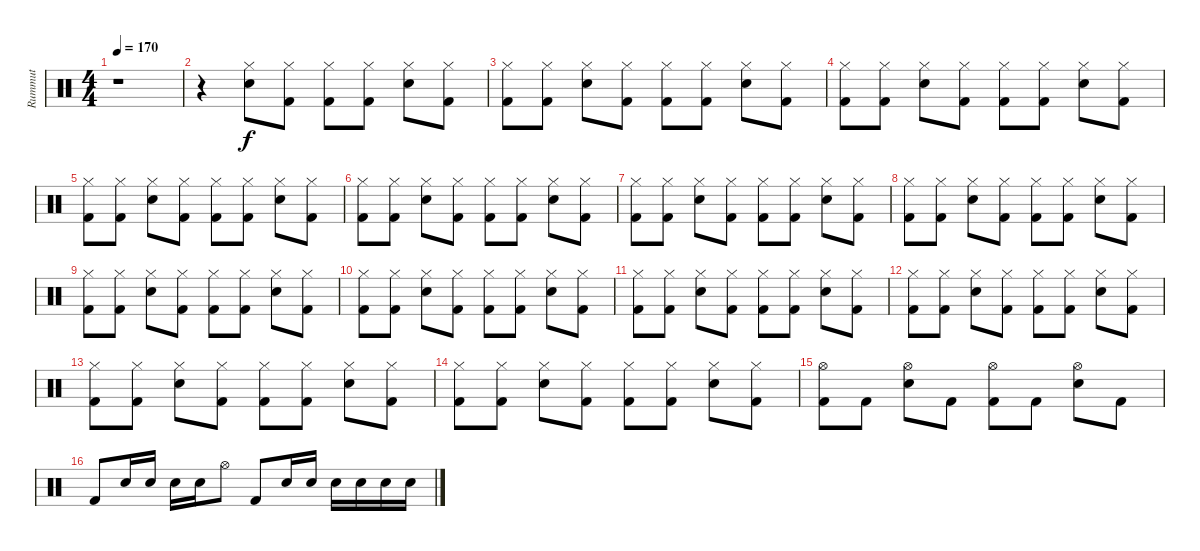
\track ("Rummut" "Rummut") {instrument percussion}
\staff {score}
\articulation defaults
\ts (4 4)
\tempo 170
\clef neutral
\ks c
r.1{dy f} |
r.4 ("Hi-Hat (closed)" "Electric Snare (hit)").8 ("Hi-Hat (closed)" "Kick (hit) 2").8 ("Hi-Hat (closed)" "Kick (hit) 2").8 ("Hi-Hat (closed)" "Kick (hit) 2").8 ("Hi-Hat (closed)" "Electric Snare (hit)").8 ("Hi-Hat (closed)" "Kick (hit) 2").8 |
("Hi-Hat (closed)" "Kick (hit) 2").8 ("Hi-Hat (closed)" "Kick (hit) 2").8 ("Hi-Hat (closed)" "Electric Snare (hit)").8 ("Hi-Hat (closed)" "Kick (hit) 2").8 ("Hi-Hat (closed)" "Kick (hit) 2").8 ("Hi-Hat (closed)" "Kick (hit) 2").8 ("Hi-Hat (closed)" "Electric Snare (hit)").8 ("Hi-Hat (closed)" "Kick (hit) 2").8 |
("Hi-Hat (closed)" "Kick (hit) 2").8 ("Hi-Hat (closed)" "Kick (hit) 2").8 ("Hi-Hat (closed)" "Electric Snare (hit)").8 ("Hi-Hat (closed)" "Kick (hit) 2").8 ("Hi-Hat (closed)" "Kick (hit) 2").8 ("Hi-Hat (closed)" "Kick (hit) 2").8 ("Hi-Hat (closed)" "Electric Snare (hit)").8 ("Hi-Hat (closed)" "Kick (hit) 2").8 |
("Hi-Hat (closed)" "Kick (hit) 2").8 ("Hi-Hat (closed)" "Kick (hit) 2").8 ("Hi-Hat (closed)" "Electric Snare (hit)").8 ("Hi-Hat (closed)" "Kick (hit) 2").8 ("Hi-Hat (closed)" "Kick (hit) 2").8 ("Hi-Hat (closed)" "Kick (hit) 2").8 ("Hi-Hat (closed)" "Electric Snare (hit)").8 ("Hi-Hat (closed)" "Kick (hit) 2").8 |
("Hi-Hat (closed)" "Kick (hit) 2").8 ("Hi-Hat (closed)" "Kick (hit) 2").8 ("Hi-Hat (closed)" "Electric Snare (hit)").8 ("Hi-Hat (closed)" "Kick (hit) 2").8 ("Hi-Hat (closed)" "Kick (hit) 2").8 ("Hi-Hat (closed)" "Kick (hit) 2").8 ("Hi-Hat (closed)" "Electric Snare (hit)").8 ("Hi-Hat (closed)" "Kick (hit) 2").8 |
("Hi-Hat (closed)" "Kick (hit) 2").8 ("Hi-Hat (closed)" "Kick (hit) 2").8 ("Hi-Hat (closed)" "Electric Snare (hit)").8 ("Hi-Hat (closed)" "Kick (hit) 2").8 ("Hi-Hat (closed)" "Kick (hit) 2").8 ("Hi-Hat (closed)" "Kick (hit) 2").8 ("Hi-Hat (closed)" "Electric Snare (hit)").8 ("Hi-Hat (closed)" "Kick (hit) 2").8 |
("Hi-Hat (closed)" "Kick (hit) 2").8 ("Hi-Hat (closed)" "Kick (hit) 2").8 ("Hi-Hat (closed)" "Electric Snare (hit)").8 ("Hi-Hat (closed)" "Kick (hit) 2").8 ("Hi-Hat (closed)" "Kick (hit) 2").8 ("Hi-Hat (closed)" "Kick (hit) 2").8 ("Hi-Hat (closed)" "Electric Snare (hit)").8 ("Hi-Hat (closed)" "Kick (hit) 2").8 |
("Hi-Hat (closed)" "Kick (hit) 2").8 ("Hi-Hat (closed)" "Kick (hit) 2").8 ("Hi-Hat (closed)" "Electric Snare (hit)").8 ("Hi-Hat (closed)" "Kick (hit) 2").8 ("Hi-Hat (closed)" "Kick (hit) 2").8 ("Hi-Hat (closed)" "Kick (hit) 2").8 ("Hi-Hat (closed)" "Electric Snare (hit)").8 ("Hi-Hat (closed)" "Kick (hit) 2").8 |
("Hi-Hat (closed)" "Kick (hit) 2").8 ("Hi-Hat (closed)" "Kick (hit) 2").8 ("Hi-Hat (closed)" "Electric Snare (hit)").8 ("Hi-Hat (closed)" "Kick (hit) 2").8 ("Hi-Hat (closed)" "Kick (hit) 2").8 ("Hi-Hat (closed)" "Kick (hit) 2").8 ("Hi-Hat (closed)" "Electric Snare (hit)").8 ("Hi-Hat (closed)" "Kick (hit) 2").8 |
("Hi-Hat (closed)" "Kick (hit) 2").8 ("Hi-Hat (closed)" "Kick (hit) 2").8 ("Hi-Hat (closed)" "Electric Snare (hit)").8 ("Hi-Hat (closed)" "Kick (hit) 2").8 ("Hi-Hat (closed)" "Kick (hit) 2").8 ("Hi-Hat (closed)" "Kick (hit) 2").8 ("Hi-Hat (closed)" "Electric Snare (hit)").8 ("Hi-Hat (closed)" "Kick (hit) 2").8 |
("Hi-Hat (closed)" "Kick (hit) 2").8 ("Hi-Hat (closed)" "Kick (hit) 2").8 ("Hi-Hat (closed)" "Electric Snare (hit)").8 ("Hi-Hat (closed)" "Kick (hit) 2").8 ("Hi-Hat (closed)" "Kick (hit) 2").8 ("Hi-Hat (closed)" "Kick (hit) 2").8 ("Hi-Hat (closed)" "Electric Snare (hit)").8 ("Hi-Hat (closed)" "Kick (hit) 2").8 |
("Hi-Hat (closed)" "Kick (hit) 2").8 ("Hi-Hat (closed)" "Kick (hit) 2").8 ("Hi-Hat (closed)" "Electric Snare (hit)").8 ("Hi-Hat (closed)" "Kick (hit) 2").8 ("Hi-Hat (closed)" "Kick (hit) 2").8 ("Hi-Hat (closed)" "Kick (hit) 2").8 ("Hi-Hat (closed)" "Electric Snare (hit)").8 ("Hi-Hat (closed)" "Kick (hit) 2").8 |
("Hi-Hat (closed)" "Kick (hit) 2").8 ("Hi-Hat (closed)" "Kick (hit) 2").8 ("Hi-Hat (closed)" "Electric Snare (hit)").8 ("Hi-Hat (closed)" "Kick (hit) 2").8 ("Hi-Hat (closed)" "Kick (hit) 2").8 ("Hi-Hat (closed)" "Kick (hit) 2").8 ("Hi-Hat (closed)" "Electric Snare (hit)").8 ("Hi-Hat (closed)" "Kick (hit) 2").8 |
("Hi-Hat (open)" "Kick (hit) 2").8 "Kick (hit) 2".8 ("Hi-Hat (open)" "Electric Snare (hit)").8 "Kick (hit) 2".8 ("Hi-Hat (open)" "Kick (hit) 2").8 "Kick (hit) 2".8 ("Hi-Hat (open)" "Electric Snare (hit)").8 "Kick (hit) 2".8 |
"Kick (hit) 2".8 "Electric Snare (hit)".16 "Electric Snare (hit)".16 "Electric Snare (hit)".16 "Electric Snare (hit)".16 "Hi-Hat (open)".8 "Kick (hit) 2".8 "Electric Snare (hit)".16 "Electric Snare (hit)".16 "Electric Snare (hit)".16 "Electric Snare (hit)".16 "Electric Snare (hit)".16 "Electric Snare (hit)".16
